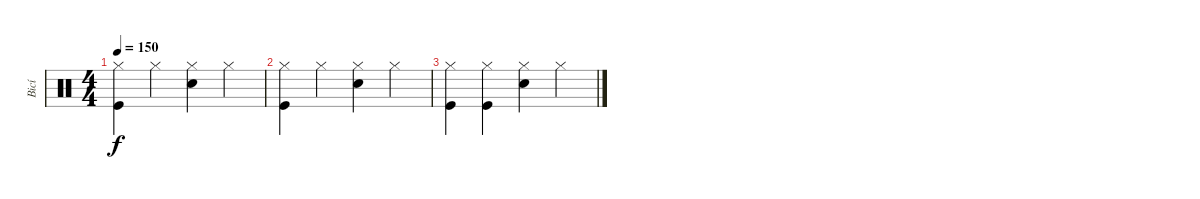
\track ("Bicí" "Bicí") {instrument percussion}
\staff {score}
\articulation defaults
\ts (4 4)
\tempo 150
\clef neutral
\ks c
("Kick (hit)" "Hi-Hat (closed)").4{dy f} "Hi-Hat (closed)".4 ("Snare (hit) 2" "Hi-Hat (closed)").4 "Hi-Hat (closed)".4 |
("Kick (hit)" "Hi-Hat (closed)").4 "Hi-Hat (closed)".4 ("Snare (hit) 2" "Hi-Hat (closed)").4 "Hi-Hat (closed)".4 |
("Kick (hit)" "Hi-Hat (closed)").4 ("Kick (hit)" "Hi-Hat (closed)").4 ("Snare (hit) 2" "Hi-Hat (closed)").4 "Hi-Hat (closed)".4
